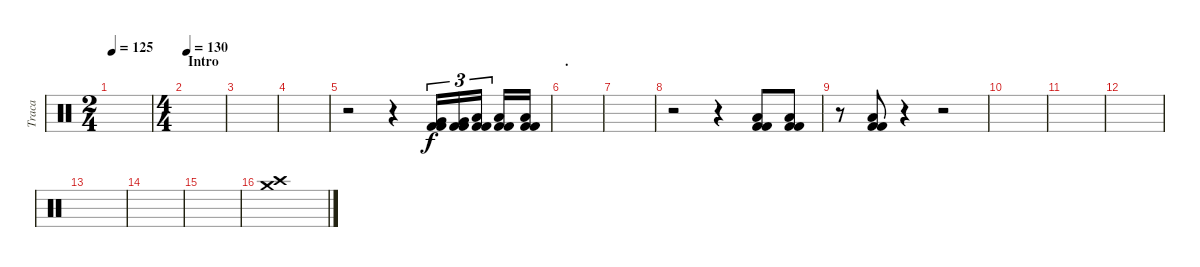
\track ("Traca" "Traca") {instrument percussion}
\staff {score}
\articulation defaults
\ts (2 4)
\tempo 125
\clef neutral
\ks c
|
\ts (4 4)
\section ("" "Intro")
\tempo 130
|
|
|
r.2 r.4 ("Very Low Tom (hit)" "Kick (hit) 2" "Kick (hit) 2").16{tu (3 2)} ("Very Low Tom (hit)" "Kick (hit) 2" "Kick (hit) 2").16{tu (3 2)} ("Low Floor Tom (hit)" "Kick (hit) 2" "Kick (hit) 2").16{tu (3 2)} ("Low Floor Tom (hit)" "Kick (hit) 2" "Kick (hit) 2").16 ("Low Floor Tom (hit)" "Kick (hit) 2" "Kick (hit) 2").16 |
\section ("" ".")
|
|
r.2 r.4 ("Low Floor Tom (hit)" "Kick (hit) 2" "Kick (hit) 2").8 ("Low Floor Tom (hit)" "Kick (hit) 2" "Kick (hit) 2").8 |
r.8 ("Low Floor Tom (hit)" "Kick (hit) 2" "Kick (hit) 2").8 r.4 r.2 |
|
|
|
|
|
|
("Crash high (hit)" "Crash medium (hit)").1
